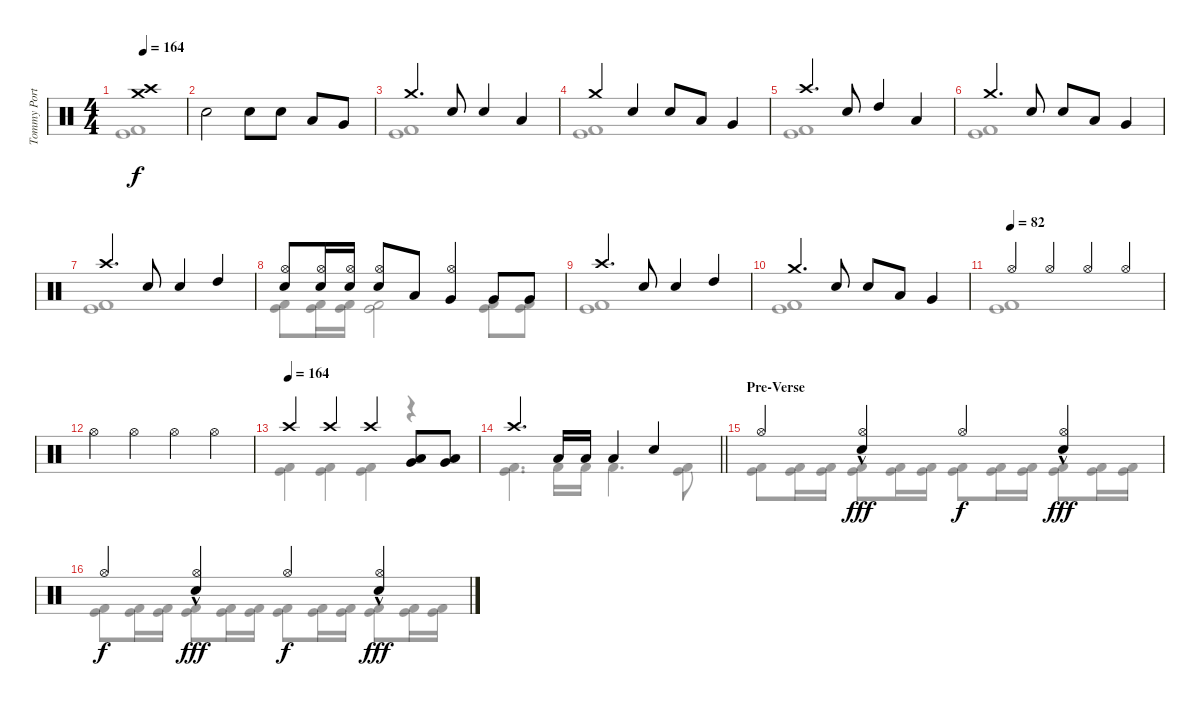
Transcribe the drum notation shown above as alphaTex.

\track ("Tommy Portimo" "Tommy Port") {instrument percussion}
\staff {score}
\articulation defaults
\voice
\ts (4 4)
\tempo 164
\clef neutral
\ks c
("Crash high (hit)" "Crash medium (hit)").1{dy f} |
"Snare (hit) 2".2 "Snare (hit) 2".8 "Snare (hit) 2".8 "Low Tom (hit)".8 "Very Low Tom (hit)".8 |
"Crash medium (hit)".4{d} "Snare (hit) 2".8 "Snare (hit) 2".4 "Low Tom (hit)".4 |
"Crash medium (hit)".4 "Snare (hit) 2".4 "Snare (hit) 2".8 "Low Tom (hit)".8 "Very Low Tom (hit)".4 |
"Crash high (hit)".4{d} "Snare (hit) 2".8 "High Tom (hit)".4 "Low Tom (hit)".4 |
"Crash medium (hit)".4{d} "Snare (hit) 2".8 "Snare (hit) 2".8 "Low Tom (hit)".8 "Very Low Tom (hit)".4 |
"Crash high (hit)".4{d} "Snare (hit) 2".8 "Snare (hit) 2".4 "High Tom (hit)".4 |
("Snare (hit) 2" "Hi-Hat (open)").8 ("Snare (hit) 2" "Hi-Hat (open)").16 ("Snare (hit) 2" "Hi-Hat (open)").16 ("Snare (hit) 2" "Hi-Hat (open)").8 "Low Tom (hit)".8 ("Very Low Tom (hit)" "Hi-Hat (open)").4 "Very Low Tom (hit)".8 "Very Low Tom (hit)".8 |
"Crash high (hit)".4{d} "Snare (hit) 2".8 "Snare (hit) 2".4 "High Tom (hit)".4 |
"Crash medium (hit)".4{d} "Snare (hit) 2".8 "Snare (hit) 2".8 "Low Tom (hit)".8 "Very Low Tom (hit)".4 |
\tempo (82)
"Hi-Hat (open)".4 "Hi-Hat (open)".4 "Hi-Hat (open)".4 "Hi-Hat (open)".4 |
"Hi-Hat (open)".4 "Hi-Hat (open)".4 "Hi-Hat (open)".4 "Hi-Hat (open)".4 |
\tempo (164)
"Crash high (hit)".4 "Crash high (hit)".4 "Crash high (hit)".4 ("Very Low Tom (hit)" "Low Tom (hit)").8 ("Very Low Tom (hit)" "Low Tom (hit)").8 |
\barLineRight lightlight "Crash high (hit)".4{d} "Low Tom (hit)".16 "Low Tom (hit)".16 "Low Tom (hit)".4 "Snare (hit) 2".4
|
\section ("" "Pre-Verse")
"Hi-Hat (open)".4 ("Snare (hit) 2"{hac} "Hi-Hat (open)").4{dy fff} "Hi-Hat (open)".4{dy f} ("Snare (hit) 2"{hac} "Hi-Hat (open)").4{dy fff} |
"Hi-Hat (open)".4{dy f} ("Snare (hit) 2"{hac} "Hi-Hat (open)").4{dy fff} "Hi-Hat (open)".4{dy f} ("Snare (hit) 2"{hac} "Hi-Hat (open)").4{dy fff}
\voice
\clef neutral
\ottava regular
\simile none
\ks c
("Kick (hit)" "Kick (hit) 2").1{dy f} |
|
("Kick (hit)" "Kick (hit) 2").1 |
("Kick (hit)" "Kick (hit) 2").1 |
("Kick (hit)" "Kick (hit) 2").1 |
("Kick (hit)" "Kick (hit) 2").1 |
("Kick (hit)" "Kick (hit) 2").1 |
("Kick (hit)" "Kick (hit) 2").8 ("Kick (hit)" "Kick (hit) 2").16 ("Kick (hit)" "Kick (hit) 2").16 ("Kick (hit)" "Kick (hit) 2").2 ("Kick (hit)" "Kick (hit) 2").8 ("Kick (hit)" "Kick (hit) 2").8 |
("Kick (hit)" "Kick (hit) 2").1 |
("Kick (hit)" "Kick (hit) 2").1 |
("Kick (hit)" "Kick (hit) 2").1 |
|
("Kick (hit)" "Kick (hit) 2").4 ("Kick (hit)" "Kick (hit) 2").4 ("Kick (hit)" "Kick (hit) 2").4 r.4 |
\barLineRight lightlight
("Kick (hit)" "Kick (hit) 2").4{d} "Kick (hit) 2".16 "Kick (hit) 2".16 "Kick (hit) 2".4{d} ("Kick (hit)" "Kick (hit) 2").8 |
("Kick (hit)" "Kick (hit) 2").8 ("Kick (hit)" "Kick (hit) 2").16 ("Kick (hit)" "Kick (hit) 2").16 ("Kick (hit)" "Kick (hit) 2").8 ("Kick (hit)" "Kick (hit) 2").16 ("Kick (hit)" "Kick (hit) 2").16 ("Kick (hit)" "Kick (hit) 2").8 ("Kick (hit)" "Kick (hit) 2").16 ("Kick (hit)" "Kick (hit) 2").16 ("Kick (hit)" "Kick (hit) 2").8 ("Kick (hit)" "Kick (hit) 2").16 ("Kick (hit)" "Kick (hit) 2").16 |
("Kick (hit)" "Kick (hit) 2").8 ("Kick (hit)" "Kick (hit) 2").16 ("Kick (hit)" "Kick (hit) 2").16 ("Kick (hit)" "Kick (hit) 2").8 ("Kick (hit)" "Kick (hit) 2").16 ("Kick (hit)" "Kick (hit) 2").16 ("Kick (hit)" "Kick (hit) 2").8 ("Kick (hit)" "Kick (hit) 2").16 ("Kick (hit)" "Kick (hit) 2").16 ("Kick (hit)" "Kick (hit) 2").8 ("Kick (hit)" "Kick (hit) 2").16 ("Kick (hit)" "Kick (hit) 2").16
